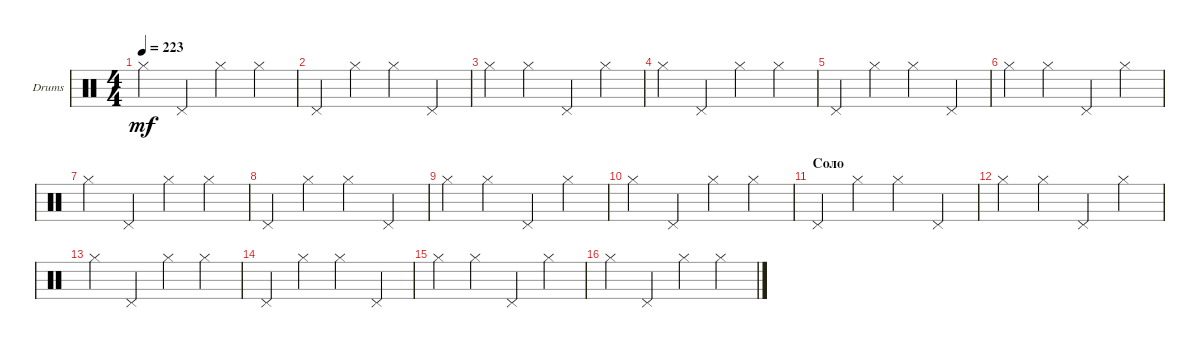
\defaultSystemsLayout 4
\bracketExtendMode groupsimilarinstruments
\firstSystemTrackNameOrientation horizontal
\otherSystemsTrackNameOrientation horizontal
\track ("Drumkit" "Drums") {instrument percussion}
\staff {score}
\articulation defaults
\ts (4 4)
\tempo 223
\clef neutral
\ks c "Hi-Hat (closed)".4{dy mf} "Pedal Hi-Hat (hit)".4 "Hi-Hat (closed)".4 "Hi-Hat (closed)".4
|
"Pedal Hi-Hat (hit)".4 "Hi-Hat (closed)".4 "Hi-Hat (closed)".4 "Pedal Hi-Hat (hit)".4 |
"Hi-Hat (closed)".4 "Hi-Hat (closed)".4 "Pedal Hi-Hat (hit)".4 "Hi-Hat (closed)".4 |
"Hi-Hat (closed)".4 "Pedal Hi-Hat (hit)".4 "Hi-Hat (closed)".4 "Hi-Hat (closed)".4 |
"Pedal Hi-Hat (hit)".4 "Hi-Hat (closed)".4 "Hi-Hat (closed)".4 "Pedal Hi-Hat (hit)".4 |
"Hi-Hat (closed)".4 "Hi-Hat (closed)".4 "Pedal Hi-Hat (hit)".4 "Hi-Hat (closed)".4 |
"Hi-Hat (closed)".4 "Pedal Hi-Hat (hit)".4 "Hi-Hat (closed)".4 "Hi-Hat (closed)".4 |
"Pedal Hi-Hat (hit)".4 "Hi-Hat (closed)".4 "Hi-Hat (closed)".4 "Pedal Hi-Hat (hit)".4 |
"Hi-Hat (closed)".4 "Hi-Hat (closed)".4 "Pedal Hi-Hat (hit)".4 "Hi-Hat (closed)".4 |
"Hi-Hat (closed)".4 "Pedal Hi-Hat (hit)".4 "Hi-Hat (closed)".4 "Hi-Hat (closed)".4 |
\section ("" "Соло")
"Pedal Hi-Hat (hit)".4 "Hi-Hat (closed)".4 "Hi-Hat (closed)".4 "Pedal Hi-Hat (hit)".4 |
"Hi-Hat (closed)".4 "Hi-Hat (closed)".4 "Pedal Hi-Hat (hit)".4 "Hi-Hat (closed)".4 |
"Hi-Hat (closed)".4 "Pedal Hi-Hat (hit)".4 "Hi-Hat (closed)".4 "Hi-Hat (closed)".4 |
"Pedal Hi-Hat (hit)".4 "Hi-Hat (closed)".4 "Hi-Hat (closed)".4 "Pedal Hi-Hat (hit)".4 |
"Hi-Hat (closed)".4 "Hi-Hat (closed)".4 "Pedal Hi-Hat (hit)".4 "Hi-Hat (closed)".4 |
"Hi-Hat (closed)".4 "Pedal Hi-Hat (hit)".4 "Hi-Hat (closed)".4 "Hi-Hat (closed)".4
